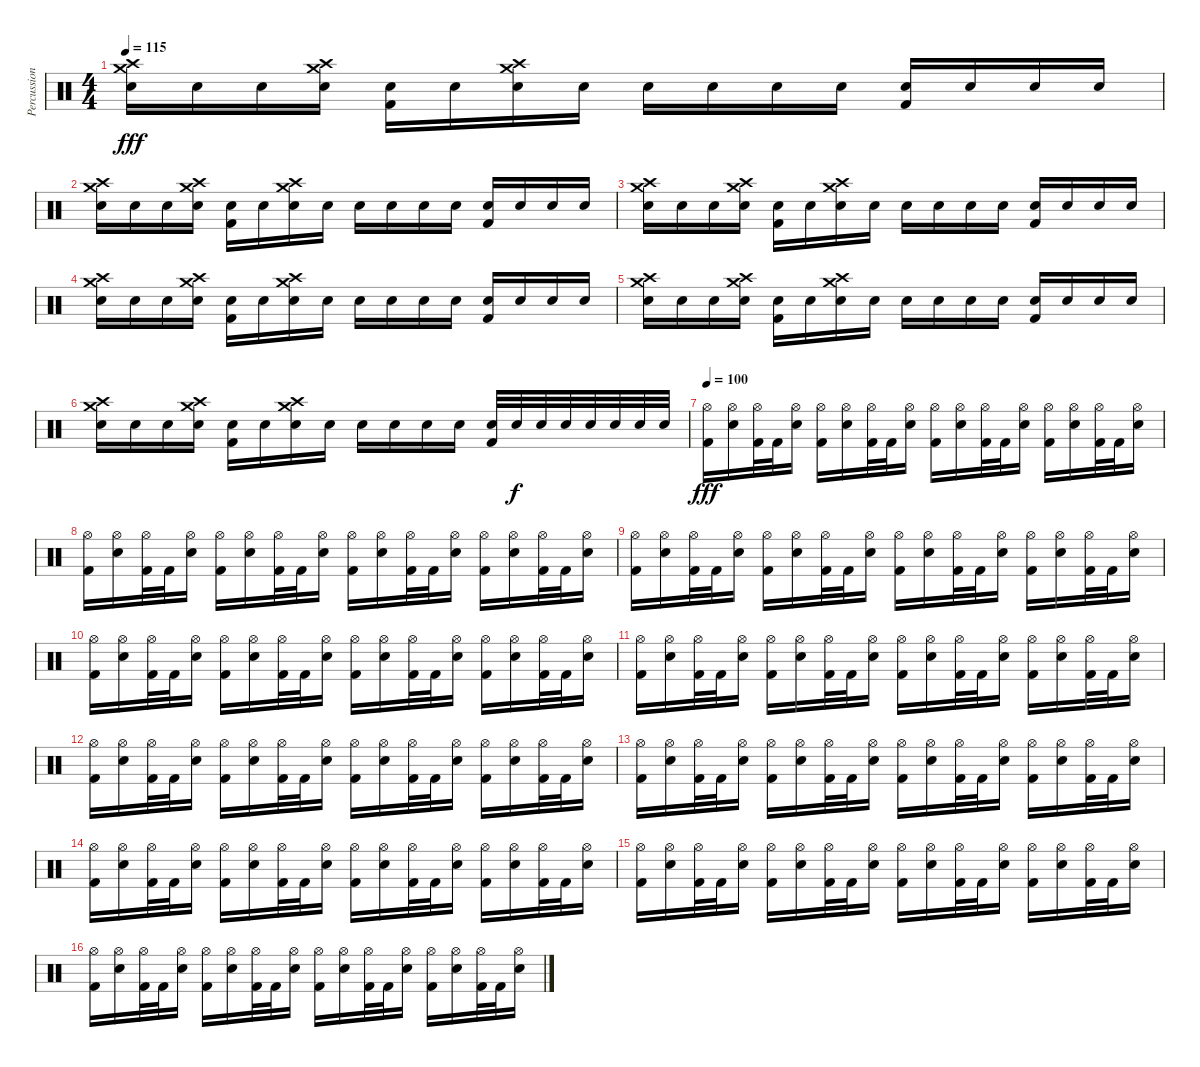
\track ("Percussion" "Percussion") {instrument percussion}
\staff {score}
\articulation defaults
\ts (4 4)
\tempo 115
\clef neutral
\ks c
("Crash medium (hit)" "Crash high (hit)" "Electric Snare (hit)").16{dy fff} "Electric Snare (hit)".16 "Electric Snare (hit)".16 ("Crash medium (hit)" "Crash high (hit)" "Electric Snare (hit)").16 ("Electric Snare (hit)" "Kick (hit) 2").16 "Electric Snare (hit)".16 ("Crash medium (hit)" "Crash high (hit)" "Electric Snare (hit)").16 "Electric Snare (hit)".16 "Electric Snare (hit)".16 "Electric Snare (hit)".16 "Electric Snare (hit)".16 "Electric Snare (hit)".16 ("Electric Snare (hit)" "Kick (hit) 2").16 "Electric Snare (hit)".16 "Electric Snare (hit)".16 "Electric Snare (hit)".16 |
("Crash medium (hit)" "Crash high (hit)" "Electric Snare (hit)").16 "Electric Snare (hit)".16 "Electric Snare (hit)".16 ("Crash medium (hit)" "Crash high (hit)" "Electric Snare (hit)").16 ("Electric Snare (hit)" "Kick (hit) 2").16 "Electric Snare (hit)".16 ("Crash medium (hit)" "Crash high (hit)" "Electric Snare (hit)").16 "Electric Snare (hit)".16 "Electric Snare (hit)".16 "Electric Snare (hit)".16 "Electric Snare (hit)".16 "Electric Snare (hit)".16 ("Electric Snare (hit)" "Kick (hit) 2").16 "Electric Snare (hit)".16 "Electric Snare (hit)".16 "Electric Snare (hit)".16 |
("Crash medium (hit)" "Crash high (hit)" "Electric Snare (hit)").16 "Electric Snare (hit)".16 "Electric Snare (hit)".16 ("Crash medium (hit)" "Crash high (hit)" "Electric Snare (hit)").16 ("Electric Snare (hit)" "Kick (hit) 2").16 "Electric Snare (hit)".16 ("Crash medium (hit)" "Crash high (hit)" "Electric Snare (hit)").16 "Electric Snare (hit)".16 "Electric Snare (hit)".16 "Electric Snare (hit)".16 "Electric Snare (hit)".16 "Electric Snare (hit)".16 ("Electric Snare (hit)" "Kick (hit) 2").16 "Electric Snare (hit)".16 "Electric Snare (hit)".16 "Electric Snare (hit)".16 |
("Crash medium (hit)" "Crash high (hit)" "Electric Snare (hit)").16 "Electric Snare (hit)".16 "Electric Snare (hit)".16 ("Crash medium (hit)" "Crash high (hit)" "Electric Snare (hit)").16 ("Electric Snare (hit)" "Kick (hit) 2").16 "Electric Snare (hit)".16 ("Crash medium (hit)" "Crash high (hit)" "Electric Snare (hit)").16 "Electric Snare (hit)".16 "Electric Snare (hit)".16 "Electric Snare (hit)".16 "Electric Snare (hit)".16 "Electric Snare (hit)".16 ("Electric Snare (hit)" "Kick (hit) 2").16 "Electric Snare (hit)".16 "Electric Snare (hit)".16 "Electric Snare (hit)".16 |
("Crash medium (hit)" "Crash high (hit)" "Electric Snare (hit)").16 "Electric Snare (hit)".16 "Electric Snare (hit)".16 ("Crash medium (hit)" "Crash high (hit)" "Electric Snare (hit)").16 ("Electric Snare (hit)" "Kick (hit) 2").16 "Electric Snare (hit)".16 ("Crash medium (hit)" "Crash high (hit)" "Electric Snare (hit)").16 "Electric Snare (hit)".16 "Electric Snare (hit)".16 "Electric Snare (hit)".16 "Electric Snare (hit)".16 "Electric Snare (hit)".16 ("Electric Snare (hit)" "Kick (hit) 2").16 "Electric Snare (hit)".16 "Electric Snare (hit)".16 "Electric Snare (hit)".16 |
("Crash medium (hit)" "Crash high (hit)" "Electric Snare (hit)").16 "Electric Snare (hit)".16 "Electric Snare (hit)".16 ("Crash medium (hit)" "Crash high (hit)" "Electric Snare (hit)").16 ("Electric Snare (hit)" "Kick (hit) 2").16 "Electric Snare (hit)".16 ("Crash medium (hit)" "Crash high (hit)" "Electric Snare (hit)").16 "Electric Snare (hit)".16 "Electric Snare (hit)".16 "Electric Snare (hit)".16 "Electric Snare (hit)".16 "Electric Snare (hit)".16 ("Electric Snare (hit)" "Kick (hit) 2").32 "Electric Snare (hit)".32{dy f} "Electric Snare (hit)".32 "Electric Snare (hit)".32 "Electric Snare (hit)".32 "Electric Snare (hit)".32 "Electric Snare (hit)".32 "Electric Snare (hit)".32 |
\tempo 100
("Kick (hit) 2" "Hi-Hat (open)").16{dy fff} ("Electric Snare (hit)" "Hi-Hat (open)").16 ("Kick (hit) 2" "Hi-Hat (open)").32 "Kick (hit) 2".32 ("Electric Snare (hit)" "Hi-Hat (open)").16 ("Kick (hit) 2" "Hi-Hat (open)").16 ("Electric Snare (hit)" "Hi-Hat (open)").16 ("Kick (hit) 2" "Hi-Hat (open)").32 "Kick (hit) 2".32 ("Electric Snare (hit)" "Hi-Hat (open)").16 ("Kick (hit) 2" "Hi-Hat (open)").16 ("Electric Snare (hit)" "Hi-Hat (open)").16 ("Kick (hit) 2" "Hi-Hat (open)").32 "Kick (hit) 2".32 ("Electric Snare (hit)" "Hi-Hat (open)").16 ("Kick (hit) 2" "Hi-Hat (open)").16 ("Electric Snare (hit)" "Hi-Hat (open)").16 ("Kick (hit) 2" "Hi-Hat (open)").32 "Kick (hit) 2".32 ("Electric Snare (hit)" "Hi-Hat (open)").16 |
("Kick (hit) 2" "Hi-Hat (open)").16 ("Electric Snare (hit)" "Hi-Hat (open)").16 ("Kick (hit) 2" "Hi-Hat (open)").32 "Kick (hit) 2".32 ("Electric Snare (hit)" "Hi-Hat (open)").16 ("Kick (hit) 2" "Hi-Hat (open)").16 ("Electric Snare (hit)" "Hi-Hat (open)").16 ("Kick (hit) 2" "Hi-Hat (open)").32 "Kick (hit) 2".32 ("Electric Snare (hit)" "Hi-Hat (open)").16 ("Kick (hit) 2" "Hi-Hat (open)").16 ("Electric Snare (hit)" "Hi-Hat (open)").16 ("Kick (hit) 2" "Hi-Hat (open)").32 "Kick (hit) 2".32 ("Electric Snare (hit)" "Hi-Hat (open)").16 ("Kick (hit) 2" "Hi-Hat (open)").16 ("Electric Snare (hit)" "Hi-Hat (open)").16 ("Kick (hit) 2" "Hi-Hat (open)").32 "Kick (hit) 2".32 ("Electric Snare (hit)" "Hi-Hat (open)").16 |
("Kick (hit) 2" "Hi-Hat (open)").16 ("Electric Snare (hit)" "Hi-Hat (open)").16 ("Kick (hit) 2" "Hi-Hat (open)").32 "Kick (hit) 2".32 ("Electric Snare (hit)" "Hi-Hat (open)").16 ("Kick (hit) 2" "Hi-Hat (open)").16 ("Electric Snare (hit)" "Hi-Hat (open)").16 ("Kick (hit) 2" "Hi-Hat (open)").32 "Kick (hit) 2".32 ("Electric Snare (hit)" "Hi-Hat (open)").16 ("Kick (hit) 2" "Hi-Hat (open)").16 ("Electric Snare (hit)" "Hi-Hat (open)").16 ("Kick (hit) 2" "Hi-Hat (open)").32 "Kick (hit) 2".32 ("Electric Snare (hit)" "Hi-Hat (open)").16 ("Kick (hit) 2" "Hi-Hat (open)").16 ("Electric Snare (hit)" "Hi-Hat (open)").16 ("Kick (hit) 2" "Hi-Hat (open)").32 "Kick (hit) 2".32 ("Electric Snare (hit)" "Hi-Hat (open)").16 |
("Kick (hit) 2" "Hi-Hat (open)").16 ("Electric Snare (hit)" "Hi-Hat (open)").16 ("Kick (hit) 2" "Hi-Hat (open)").32 "Kick (hit) 2".32 ("Electric Snare (hit)" "Hi-Hat (open)").16 ("Kick (hit) 2" "Hi-Hat (open)").16 ("Electric Snare (hit)" "Hi-Hat (open)").16 ("Kick (hit) 2" "Hi-Hat (open)").32 "Kick (hit) 2".32 ("Electric Snare (hit)" "Hi-Hat (open)").16 ("Kick (hit) 2" "Hi-Hat (open)").16 ("Electric Snare (hit)" "Hi-Hat (open)").16 ("Kick (hit) 2" "Hi-Hat (open)").32 "Kick (hit) 2".32 ("Electric Snare (hit)" "Hi-Hat (open)").16 ("Kick (hit) 2" "Hi-Hat (open)").16 ("Electric Snare (hit)" "Hi-Hat (open)").16 ("Kick (hit) 2" "Hi-Hat (open)").32 "Kick (hit) 2".32 ("Electric Snare (hit)" "Hi-Hat (open)").16 |
("Kick (hit) 2" "Hi-Hat (open)").16 ("Electric Snare (hit)" "Hi-Hat (open)").16 ("Kick (hit) 2" "Hi-Hat (open)").32 "Kick (hit) 2".32 ("Electric Snare (hit)" "Hi-Hat (open)").16 ("Kick (hit) 2" "Hi-Hat (open)").16 ("Electric Snare (hit)" "Hi-Hat (open)").16 ("Kick (hit) 2" "Hi-Hat (open)").32 "Kick (hit) 2".32 ("Electric Snare (hit)" "Hi-Hat (open)").16 ("Kick (hit) 2" "Hi-Hat (open)").16 ("Electric Snare (hit)" "Hi-Hat (open)").16 ("Kick (hit) 2" "Hi-Hat (open)").32 "Kick (hit) 2".32 ("Electric Snare (hit)" "Hi-Hat (open)").16 ("Kick (hit) 2" "Hi-Hat (open)").16 ("Electric Snare (hit)" "Hi-Hat (open)").16 ("Kick (hit) 2" "Hi-Hat (open)").32 "Kick (hit) 2".32 ("Electric Snare (hit)" "Hi-Hat (open)").16 |
("Kick (hit) 2" "Hi-Hat (open)").16 ("Electric Snare (hit)" "Hi-Hat (open)").16 ("Kick (hit) 2" "Hi-Hat (open)").32 "Kick (hit) 2".32 ("Electric Snare (hit)" "Hi-Hat (open)").16 ("Kick (hit) 2" "Hi-Hat (open)").16 ("Electric Snare (hit)" "Hi-Hat (open)").16 ("Kick (hit) 2" "Hi-Hat (open)").32 "Kick (hit) 2".32 ("Electric Snare (hit)" "Hi-Hat (open)").16 ("Kick (hit) 2" "Hi-Hat (open)").16 ("Electric Snare (hit)" "Hi-Hat (open)").16 ("Kick (hit) 2" "Hi-Hat (open)").32 "Kick (hit) 2".32 ("Electric Snare (hit)" "Hi-Hat (open)").16 ("Kick (hit) 2" "Hi-Hat (open)").16 ("Electric Snare (hit)" "Hi-Hat (open)").16 ("Kick (hit) 2" "Hi-Hat (open)").32 "Kick (hit) 2".32 ("Electric Snare (hit)" "Hi-Hat (open)").16 |
("Kick (hit) 2" "Hi-Hat (open)").16 ("Electric Snare (hit)" "Hi-Hat (open)").16 ("Kick (hit) 2" "Hi-Hat (open)").32 "Kick (hit) 2".32 ("Electric Snare (hit)" "Hi-Hat (open)").16 ("Kick (hit) 2" "Hi-Hat (open)").16 ("Electric Snare (hit)" "Hi-Hat (open)").16 ("Kick (hit) 2" "Hi-Hat (open)").32 "Kick (hit) 2".32 ("Electric Snare (hit)" "Hi-Hat (open)").16 ("Kick (hit) 2" "Hi-Hat (open)").16 ("Electric Snare (hit)" "Hi-Hat (open)").16 ("Kick (hit) 2" "Hi-Hat (open)").32 "Kick (hit) 2".32 ("Electric Snare (hit)" "Hi-Hat (open)").16 ("Kick (hit) 2" "Hi-Hat (open)").16 ("Electric Snare (hit)" "Hi-Hat (open)").16 ("Kick (hit) 2" "Hi-Hat (open)").32 "Kick (hit) 2".32 ("Electric Snare (hit)" "Hi-Hat (open)").16 |
("Kick (hit) 2" "Hi-Hat (open)").16 ("Electric Snare (hit)" "Hi-Hat (open)").16 ("Kick (hit) 2" "Hi-Hat (open)").32 "Kick (hit) 2".32 ("Electric Snare (hit)" "Hi-Hat (open)").16 ("Kick (hit) 2" "Hi-Hat (open)").16 ("Electric Snare (hit)" "Hi-Hat (open)").16 ("Kick (hit) 2" "Hi-Hat (open)").32 "Kick (hit) 2".32 ("Electric Snare (hit)" "Hi-Hat (open)").16 ("Kick (hit) 2" "Hi-Hat (open)").16 ("Electric Snare (hit)" "Hi-Hat (open)").16 ("Kick (hit) 2" "Hi-Hat (open)").32 "Kick (hit) 2".32 ("Electric Snare (hit)" "Hi-Hat (open)").16 ("Kick (hit) 2" "Hi-Hat (open)").16 ("Electric Snare (hit)" "Hi-Hat (open)").16 ("Kick (hit) 2" "Hi-Hat (open)").32 "Kick (hit) 2".32 ("Electric Snare (hit)" "Hi-Hat (open)").16 |
("Kick (hit) 2" "Hi-Hat (open)").16 ("Electric Snare (hit)" "Hi-Hat (open)").16 ("Kick (hit) 2" "Hi-Hat (open)").32 "Kick (hit) 2".32 ("Electric Snare (hit)" "Hi-Hat (open)").16 ("Kick (hit) 2" "Hi-Hat (open)").16 ("Electric Snare (hit)" "Hi-Hat (open)").16 ("Kick (hit) 2" "Hi-Hat (open)").32 "Kick (hit) 2".32 ("Electric Snare (hit)" "Hi-Hat (open)").16 ("Kick (hit) 2" "Hi-Hat (open)").16 ("Electric Snare (hit)" "Hi-Hat (open)").16 ("Kick (hit) 2" "Hi-Hat (open)").32 "Kick (hit) 2".32 ("Electric Snare (hit)" "Hi-Hat (open)").16 ("Kick (hit) 2" "Hi-Hat (open)").16 ("Electric Snare (hit)" "Hi-Hat (open)").16 ("Kick (hit) 2" "Hi-Hat (open)").32 "Kick (hit) 2".32 ("Electric Snare (hit)" "Hi-Hat (open)").16 |
("Kick (hit) 2" "Hi-Hat (open)").16 ("Electric Snare (hit)" "Hi-Hat (open)").16 ("Kick (hit) 2" "Hi-Hat (open)").32 "Kick (hit) 2".32 ("Electric Snare (hit)" "Hi-Hat (open)").16 ("Kick (hit) 2" "Hi-Hat (open)").16 ("Electric Snare (hit)" "Hi-Hat (open)").16 ("Kick (hit) 2" "Hi-Hat (open)").32 "Kick (hit) 2".32 ("Electric Snare (hit)" "Hi-Hat (open)").16 ("Kick (hit) 2" "Hi-Hat (open)").16 ("Electric Snare (hit)" "Hi-Hat (open)").16 ("Kick (hit) 2" "Hi-Hat (open)").32 "Kick (hit) 2".32 ("Electric Snare (hit)" "Hi-Hat (open)").16 ("Kick (hit) 2" "Hi-Hat (open)").16 ("Electric Snare (hit)" "Hi-Hat (open)").16 ("Kick (hit) 2" "Hi-Hat (open)").32 "Kick (hit) 2".32 ("Electric Snare (hit)" "Hi-Hat (open)").16
